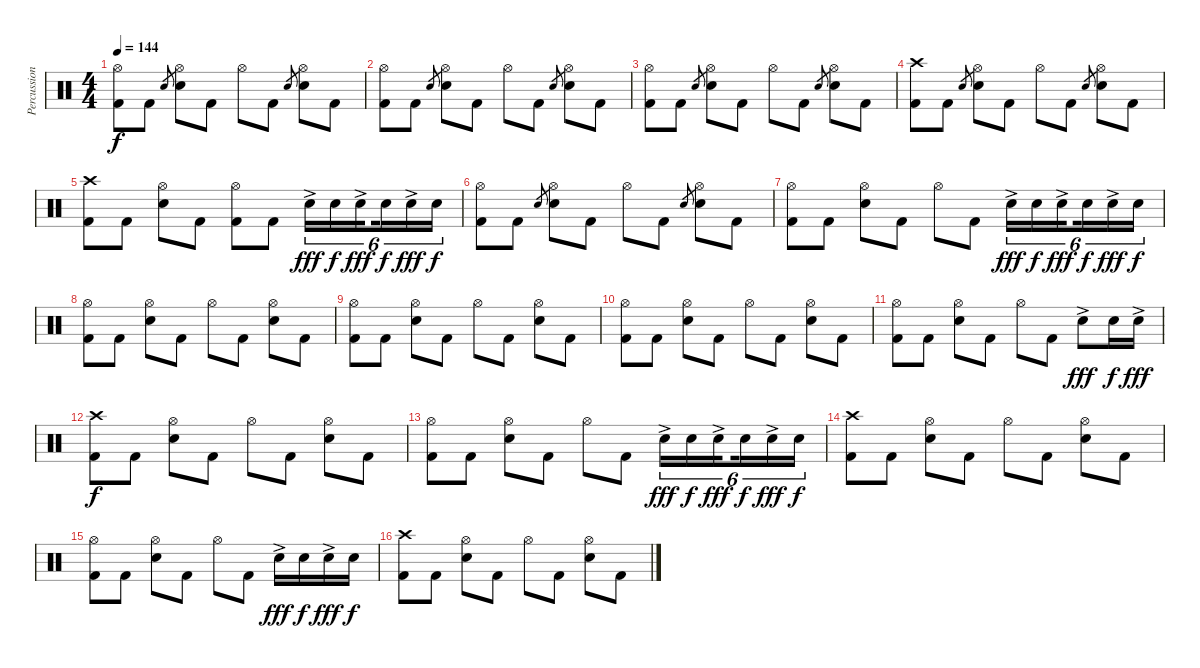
\track ("Percussion" "Percussion") {instrument percussion}
\staff {score}
\articulation defaults
\ts (4 4)
\tempo 144
\clef neutral
\ks c
("Hi-Hat (open)" "Kick (hit) 2").8{dy f} "Kick (hit) 2".8 "Snare (hit) 2".8{gr} ("Hi-Hat (open)" "Snare (hit) 2").8 "Kick (hit) 2".8 "Hi-Hat (open)".8 "Kick (hit) 2".8 "Snare (hit) 2".8{gr} ("Hi-Hat (open)" "Snare (hit) 2").8 "Kick (hit) 2".8 |
("Hi-Hat (open)" "Kick (hit) 2").8 "Kick (hit) 2".8 "Snare (hit) 2".8{gr} ("Hi-Hat (open)" "Snare (hit) 2").8 "Kick (hit) 2".8 "Hi-Hat (open)".8 "Kick (hit) 2".8 "Snare (hit) 2".8{gr} ("Hi-Hat (open)" "Snare (hit) 2").8 "Kick (hit) 2".8 |
("Hi-Hat (open)" "Kick (hit) 2").8 "Kick (hit) 2".8 "Snare (hit) 2".8{gr} ("Hi-Hat (open)" "Snare (hit) 2").8 "Kick (hit) 2".8 "Hi-Hat (open)".8 "Kick (hit) 2".8 "Snare (hit) 2".8{gr} ("Hi-Hat (open)" "Snare (hit) 2").8 "Kick (hit) 2".8 |
("Crash high (hit)" "Kick (hit) 2").8 "Kick (hit) 2".8 "Snare (hit) 2".8{gr} ("Hi-Hat (open)" "Snare (hit) 2").8 "Kick (hit) 2".8 "Hi-Hat (open)".8 "Kick (hit) 2".8 "Snare (hit) 2".8{gr} ("Hi-Hat (open)" "Snare (hit) 2").8 "Kick (hit) 2".8 |
("Crash high (hit)" "Kick (hit) 2").8 "Kick (hit) 2".8 ("Hi-Hat (open)" "Snare (hit) 2").8 "Kick (hit) 2".8 ("Hi-Hat (open)" "Kick (hit) 2").8 "Kick (hit) 2".8 "Snare (hit) 2"{ac}.16{tu (6 4) dy fff} "Snare (hit) 2".16{tu (6 4) dy f} "Snare (hit) 2"{ac}.16{tu (6 4) dy fff beam splitsecondary} "Snare (hit) 2".16{tu (6 4) dy f} "Snare (hit) 2"{ac}.16{tu (6 4) dy fff} "Snare (hit) 2".16{tu (6 4) dy f} |
("Hi-Hat (open)" "Kick (hit) 2").8 "Kick (hit) 2".8 "Snare (hit) 2".8{gr} ("Hi-Hat (open)" "Snare (hit) 2").8 "Kick (hit) 2".8 "Hi-Hat (open)".8 "Kick (hit) 2".8 "Snare (hit) 2".8{gr} ("Hi-Hat (open)" "Snare (hit) 2").8 "Kick (hit) 2".8 |
("Hi-Hat (open)" "Kick (hit) 2").8 "Kick (hit) 2".8 ("Hi-Hat (open)" "Snare (hit) 2").8 "Kick (hit) 2".8 "Hi-Hat (open)".8 "Kick (hit) 2".8 "Snare (hit) 2"{ac}.16{tu (6 4) dy fff} "Snare (hit) 2".16{tu (6 4) dy f} "Snare (hit) 2"{ac}.16{tu (6 4) dy fff beam splitsecondary} "Snare (hit) 2".16{tu (6 4) dy f} "Snare (hit) 2"{ac}.16{tu (6 4) dy fff} "Snare (hit) 2".16{tu (6 4) dy f} |
("Hi-Hat (open)" "Kick (hit) 2").8 "Kick (hit) 2".8 ("Hi-Hat (open)" "Snare (hit) 2").8 "Kick (hit) 2".8 "Hi-Hat (open)".8 "Kick (hit) 2".8 ("Hi-Hat (open)" "Snare (hit) 2").8 "Kick (hit) 2".8 |
("Hi-Hat (open)" "Kick (hit) 2").8 "Kick (hit) 2".8 ("Hi-Hat (open)" "Snare (hit) 2").8 "Kick (hit) 2".8 "Hi-Hat (open)".8 "Kick (hit) 2".8 ("Hi-Hat (open)" "Snare (hit) 2").8 "Kick (hit) 2".8 |
("Hi-Hat (open)" "Kick (hit) 2").8 "Kick (hit) 2".8 ("Hi-Hat (open)" "Snare (hit) 2").8 "Kick (hit) 2".8 "Hi-Hat (open)".8 "Kick (hit) 2".8 ("Hi-Hat (open)" "Snare (hit) 2").8 "Kick (hit) 2".8 |
("Hi-Hat (open)" "Kick (hit) 2").8 "Kick (hit) 2".8 ("Hi-Hat (open)" "Snare (hit) 2").8 "Kick (hit) 2".8 "Hi-Hat (open)".8 "Kick (hit) 2".8 "Snare (hit) 2"{ac}.8{dy fff} "Snare (hit) 2".16{dy f} "Snare (hit) 2"{ac}.16{dy fff} |
("Crash high (hit)" "Kick (hit) 2").8{dy f} "Kick (hit) 2".8 ("Hi-Hat (open)" "Snare (hit) 2").8 "Kick (hit) 2".8 "Hi-Hat (open)".8 "Kick (hit) 2".8 ("Hi-Hat (open)" "Snare (hit) 2").8 "Kick (hit) 2".8 |
("Hi-Hat (open)" "Kick (hit) 2").8 "Kick (hit) 2".8 ("Hi-Hat (open)" "Snare (hit) 2").8 "Kick (hit) 2".8 "Hi-Hat (open)".8 "Kick (hit) 2".8 "Snare (hit) 2"{ac}.16{tu (6 4) dy fff} "Snare (hit) 2".16{tu (6 4) dy f} "Snare (hit) 2"{ac}.16{tu (6 4) dy fff beam splitsecondary} "Snare (hit) 2".16{tu (6 4) dy f} "Snare (hit) 2"{ac}.16{tu (6 4) dy fff} "Snare (hit) 2".16{tu (6 4) dy f} |
("Crash high (hit)" "Kick (hit) 2").8 "Kick (hit) 2".8 ("Hi-Hat (open)" "Snare (hit) 2").8 "Kick (hit) 2".8 "Hi-Hat (open)".8 "Kick (hit) 2".8 ("Hi-Hat (open)" "Snare (hit) 2").8 "Kick (hit) 2".8 |
("Hi-Hat (open)" "Kick (hit) 2").8 "Kick (hit) 2".8 ("Hi-Hat (open)" "Snare (hit) 2").8 "Kick (hit) 2".8 "Hi-Hat (open)".8 "Kick (hit) 2".8 "Snare (hit) 2"{ac}.16{dy fff} "Snare (hit) 2".16{dy f} "Snare (hit) 2"{ac}.16{dy fff} "Snare (hit) 2".16{dy f} |
("Crash high (hit)" "Kick (hit) 2").8 "Kick (hit) 2".8 ("Hi-Hat (open)" "Snare (hit) 2").8 "Kick (hit) 2".8 "Hi-Hat (open)".8 "Kick (hit) 2".8 ("Hi-Hat (open)" "Snare (hit) 2").8 "Kick (hit) 2".8
